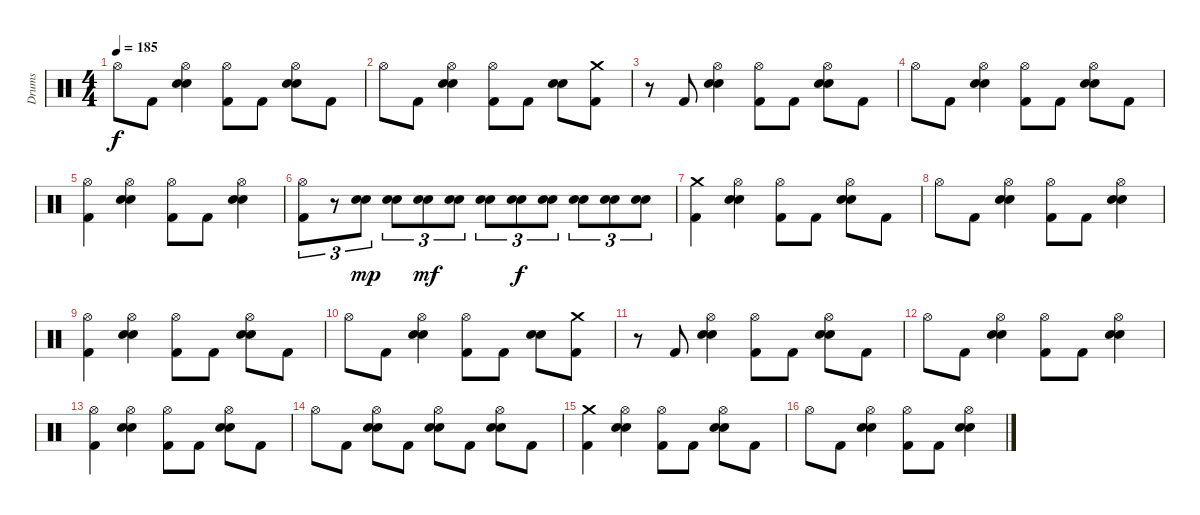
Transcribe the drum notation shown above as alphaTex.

\track ("Drums" "Drums") {instrument percussion}
\staff {score}
\articulation defaults
\ts (4 4)
\tempo 185
\clef neutral
\ks c "Hi-Hat (open)".8{dy f} "Kick (hit) 2".8
("Hi-Hat (open)" "Electric Snare (hit)" "Snare (hit) 2").4 ("Hi-Hat (open)" "Kick (hit) 2").8 "Kick (hit) 2".8 ("Hi-Hat (open)" "Electric Snare (hit)" "Snare (hit) 2").8 "Kick (hit) 2".8 |
"Hi-Hat (open)".8 "Kick (hit) 2".8 ("Hi-Hat (open)" "Electric Snare (hit)" "Snare (hit) 2").4 ("Hi-Hat (open)" "Kick (hit) 2").8 "Kick (hit) 2".8 ("Electric Snare (hit)" "Snare (hit) 2").8 ("Crash medium (hit)" "Kick (hit) 2").8 |
r.8 "Kick (hit) 2".8 ("Hi-Hat (open)" "Electric Snare (hit)" "Snare (hit) 2").4 ("Hi-Hat (open)" "Kick (hit) 2").8 "Kick (hit) 2".8 ("Hi-Hat (open)" "Electric Snare (hit)" "Snare (hit) 2").8 "Kick (hit) 2".8 |
"Hi-Hat (open)".8 "Kick (hit) 2".8 ("Hi-Hat (open)" "Electric Snare (hit)" "Snare (hit) 2").4 ("Hi-Hat (open)" "Kick (hit) 2").8 "Kick (hit) 2".8 ("Hi-Hat (open)" "Electric Snare (hit)" "Snare (hit) 2").8 "Kick (hit) 2".8 |
("Hi-Hat (open)" "Kick (hit) 2").4 ("Hi-Hat (open)" "Electric Snare (hit)" "Snare (hit) 2").4 ("Hi-Hat (open)" "Kick (hit) 2").8 "Kick (hit) 2".8 ("Hi-Hat (open)" "Electric Snare (hit)" "Snare (hit) 2").4 |
("Hi-Hat (open)" "Kick (hit) 2").8{tu (3 2)} r.8{tu (3 2)} ("Snare (hit) 2" "Electric Snare (hit)").8{tu (3 2) dy mp} ("Snare (hit) 2" "Electric Snare (hit)").8{tu (3 2)} ("Snare (hit) 2" "Electric Snare (hit)").8{tu (3 2) dy mf} ("Snare (hit) 2" "Electric Snare (hit)").8{tu (3 2)} ("Snare (hit) 2" "Electric Snare (hit)").8{tu (3 2)} ("Snare (hit) 2" "Electric Snare (hit)").8{tu (3 2) dy f} ("Snare (hit) 2" "Electric Snare (hit)").8{tu (3 2)} ("Snare (hit) 2" "Electric Snare (hit)").8{tu (3 2)} ("Snare (hit) 2" "Electric Snare (hit)").8{tu (3 2)} ("Snare (hit) 2" "Electric Snare (hit)").8{tu (3 2)} |
("Crash medium (hit)" "Kick (hit) 2").4 ("Hi-Hat (open)" "Snare (hit) 2" "Electric Snare (hit)").4 ("Hi-Hat (open)" "Kick (hit) 2").8 "Kick (hit) 2".8 ("Hi-Hat (open)" "Snare (hit) 2" "Electric Snare (hit)").8 "Kick (hit) 2".8 |
"Hi-Hat (open)".8 "Kick (hit) 2".8 ("Hi-Hat (open)" "Electric Snare (hit)" "Snare (hit) 2").4 ("Hi-Hat (open)" "Kick (hit) 2").8 "Kick (hit) 2".8 ("Hi-Hat (open)" "Electric Snare (hit)" "Snare (hit) 2").4 |
("Hi-Hat (open)" "Kick (hit) 2").4 ("Hi-Hat (open)" "Electric Snare (hit)" "Snare (hit) 2").4 ("Hi-Hat (open)" "Kick (hit) 2").8 "Kick (hit) 2".8 ("Hi-Hat (open)" "Electric Snare (hit)" "Snare (hit) 2").8 "Kick (hit) 2".8 |
"Hi-Hat (open)".8 "Kick (hit) 2".8 ("Hi-Hat (open)" "Electric Snare (hit)" "Snare (hit) 2").4 ("Hi-Hat (open)" "Kick (hit) 2").8 "Kick (hit) 2".8 ("Electric Snare (hit)" "Snare (hit) 2").8 ("Crash medium (hit)" "Kick (hit) 2").8 |
r.8 "Kick (hit) 2".8 ("Hi-Hat (open)" "Electric Snare (hit)" "Snare (hit) 2").4 ("Hi-Hat (open)" "Kick (hit) 2").8 "Kick (hit) 2".8 ("Hi-Hat (open)" "Electric Snare (hit)" "Snare (hit) 2").8 "Kick (hit) 2".8 |
"Hi-Hat (open)".8 "Kick (hit) 2".8 ("Hi-Hat (open)" "Electric Snare (hit)" "Snare (hit) 2").4 ("Hi-Hat (open)" "Kick (hit) 2").8 "Kick (hit) 2".8 ("Hi-Hat (open)" "Electric Snare (hit)" "Snare (hit) 2").4 |
("Hi-Hat (open)" "Kick (hit) 2").4 ("Hi-Hat (open)" "Electric Snare (hit)" "Snare (hit) 2").4 ("Hi-Hat (open)" "Kick (hit) 2").8 "Kick (hit) 2".8 ("Hi-Hat (open)" "Electric Snare (hit)" "Snare (hit) 2").8 "Kick (hit) 2".8 |
"Hi-Hat (open)".8 "Kick (hit) 2".8 ("Hi-Hat (open)" "Electric Snare (hit)" "Snare (hit) 2").8 "Kick (hit) 2".8 ("Hi-Hat (open)" "Electric Snare (hit)" "Snare (hit) 2").8 "Kick (hit) 2".8 ("Hi-Hat (open)" "Electric Snare (hit)" "Snare (hit) 2").8 "Kick (hit) 2".8 |
("Crash medium (hit)" "Kick (hit) 2").4 ("Hi-Hat (open)" "Snare (hit) 2" "Electric Snare (hit)").4 ("Hi-Hat (open)" "Kick (hit) 2").8 "Kick (hit) 2".8 ("Hi-Hat (open)" "Snare (hit) 2" "Electric Snare (hit)").8 "Kick (hit) 2".8 |
"Hi-Hat (open)".8 "Kick (hit) 2".8 ("Hi-Hat (open)" "Electric Snare (hit)" "Snare (hit) 2").4 ("Hi-Hat (open)" "Kick (hit) 2").8 "Kick (hit) 2".8 ("Hi-Hat (open)" "Electric Snare (hit)" "Snare (hit) 2").4
